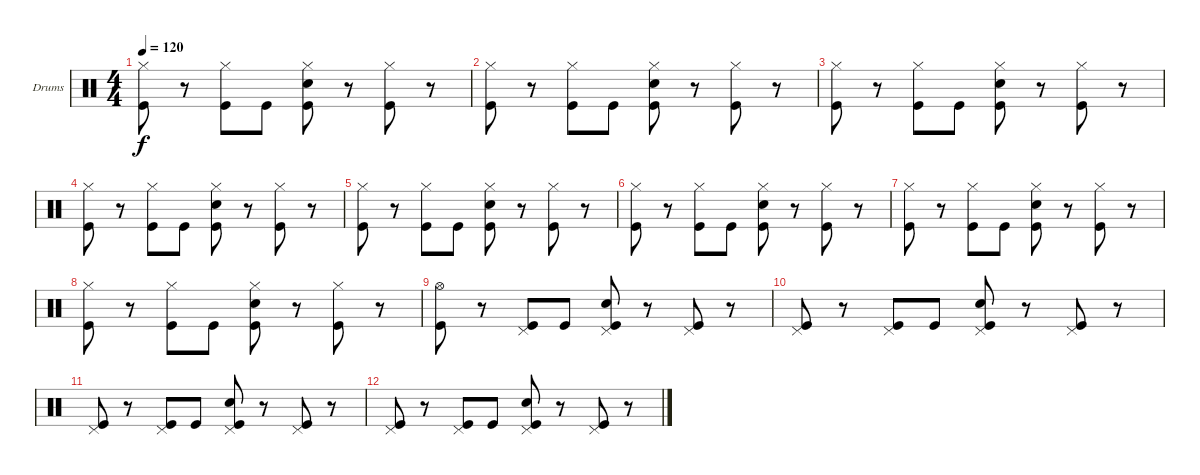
\defaultSystemsLayout 4
\bracketExtendMode groupsimilarinstruments
\firstSystemTrackNameOrientation horizontal
\otherSystemsTrackNameOrientation horizontal
\track ("Drumkit" "Drums") {instrument percussion}
\staff {score}
\articulation defaults
\ts (4 4)
\tempo 120
\clef neutral
\scale
0.333333
\ks c
("Hi-Hat (closed)" "Kick (hit)").8{dy f} r.8 ("Hi-Hat (closed)" "Kick (hit)").8 "Kick (hit)".8 ("Hi-Hat (closed)" "Kick (hit)" "Snare (hit) 2").8 r.8 ("Hi-Hat (closed)" "Kick (hit)").8 r.8 |
\scale
0.333333 ("Hi-Hat (closed)" "Kick (hit)").8 r.8 ("Hi-Hat (closed)" "Kick (hit)").8 "Kick (hit)".8 ("Hi-Hat (closed)" "Kick (hit)" "Snare (hit) 2").8 r.8 ("Hi-Hat (closed)" "Kick (hit)").8 r.8 |
\scale
0.333333 ("Hi-Hat (closed)" "Kick (hit)").8 r.8 ("Hi-Hat (closed)" "Kick (hit)").8 "Kick (hit)".8 ("Hi-Hat (closed)" "Kick (hit)" "Snare (hit) 2").8 r.8 ("Hi-Hat (closed)" "Kick (hit)").8 r.8 |
\scale
0.333333 ("Hi-Hat (closed)" "Kick (hit)").8 r.8 ("Hi-Hat (closed)" "Kick (hit)").8 "Kick (hit)".8 ("Hi-Hat (closed)" "Kick (hit)" "Snare (hit) 2").8 r.8 ("Hi-Hat (closed)" "Kick (hit)").8 r.8 |
\scale
0.333333 ("Hi-Hat (closed)" "Kick (hit)").8 r.8 ("Hi-Hat (closed)" "Kick (hit)").8 "Kick (hit)".8 ("Hi-Hat (closed)" "Kick (hit)" "Snare (hit) 2").8 r.8 ("Hi-Hat (closed)" "Kick (hit)").8 r.8 |
\scale
0.333333 ("Hi-Hat (closed)" "Kick (hit)").8 r.8 ("Hi-Hat (closed)" "Kick (hit)").8 "Kick (hit)".8 ("Hi-Hat (closed)" "Kick (hit)" "Snare (hit) 2").8 r.8 ("Hi-Hat (closed)" "Kick (hit)").8 r.8 |
\scale
0.333333 ("Hi-Hat (closed)" "Kick (hit)").8 r.8 ("Hi-Hat (closed)" "Kick (hit)").8 "Kick (hit)".8 ("Hi-Hat (closed)" "Kick (hit)" "Snare (hit) 2").8 r.8 ("Hi-Hat (closed)" "Kick (hit)").8 r.8 |
\scale
0.333333 ("Hi-Hat (closed)" "Kick (hit)").8 r.8 ("Hi-Hat (closed)" "Kick (hit)").8 "Kick (hit)".8 ("Hi-Hat (closed)" "Kick (hit)" "Snare (hit) 2").8 r.8 ("Hi-Hat (closed)" "Kick (hit)").8 r.8 |
\scale
0.333333 ("Hi-Hat (open)" "Kick (hit)").8 r.8 ("Pedal Hi-Hat (hit)" "Kick (hit)").8 "Kick (hit)".8 ("Pedal Hi-Hat (hit)" "Kick (hit)" "Snare (hit) 2").8 r.8 ("Pedal Hi-Hat (hit)" "Kick (hit)").8 r.8 |
\scale
0.333333 ("Pedal Hi-Hat (hit)" "Kick (hit)").8 r.8 ("Pedal Hi-Hat (hit)" "Kick (hit)").8 "Kick (hit)".8 ("Pedal Hi-Hat (hit)" "Kick (hit)" "Snare (hit) 2").8 r.8 ("Pedal Hi-Hat (hit)" "Kick (hit)").8 r.8 |
("Pedal Hi-Hat (hit)" "Kick (hit)").8 r.8 ("Pedal Hi-Hat (hit)" "Kick (hit)").8 "Kick (hit)".8 ("Pedal Hi-Hat (hit)" "Kick (hit)" "Snare (hit) 2").8 r.8 ("Pedal Hi-Hat (hit)" "Kick (hit)").8 r.8 |
("Pedal Hi-Hat (hit)" "Kick (hit)").8 r.8 ("Pedal Hi-Hat (hit)" "Kick (hit)").8 "Kick (hit)".8 ("Pedal Hi-Hat (hit)" "Kick (hit)" "Snare (hit) 2").8 r.8 ("Pedal Hi-Hat (hit)" "Kick (hit)").8 r.8
